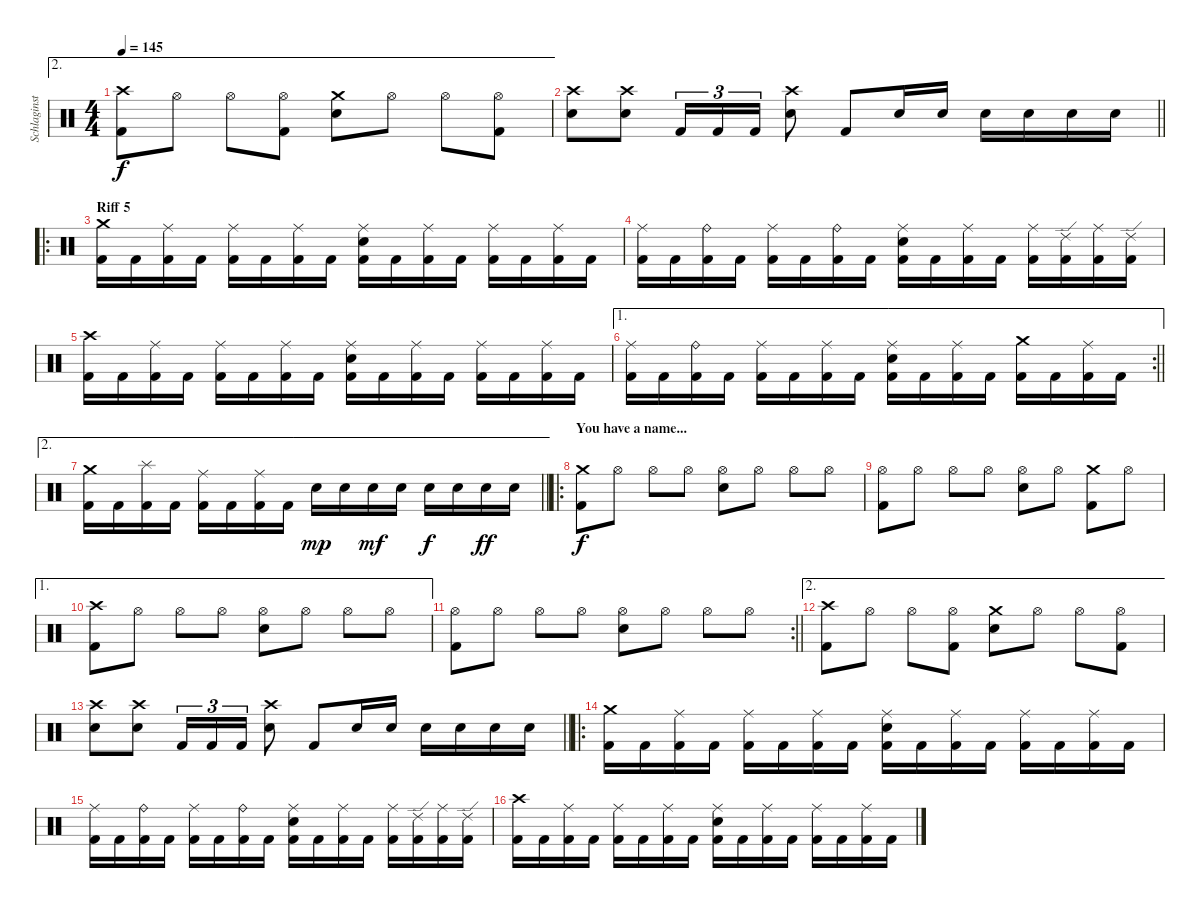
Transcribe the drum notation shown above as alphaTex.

\track ("Schlaginstrumente - Auswahl" "Schlaginst") {instrument percussion}
\staff {score}
\articulation defaults
\ae 2
\ts (4 4)
\tempo 145
\clef neutral
\ks c
("Crash high (hit)" "Kick (hit) 2").8{dy f} "Hi-Hat (open)".8 "Hi-Hat (open)".8 ("Hi-Hat (open)" "Kick (hit) 2").8 ("Crash medium (hit)" "Electric Snare (hit)").8 "Hi-Hat (open)".8 "Hi-Hat (open)".8 ("Hi-Hat (open)" "Kick (hit) 2").8 |
\barLineRight lightlight
("Crash high (hit)" "Electric Snare (hit)").8 ("Crash high (hit)" "Electric Snare (hit)").8 "Kick (hit) 2".16{tu (3 2)} "Kick (hit) 2".16{tu (3 2)} "Kick (hit) 2".16{tu (3 2)} ("Crash high (hit)" "Electric Snare (hit)").8 "Kick (hit) 2".8 "Electric Snare (hit)".16 "Electric Snare (hit)".16 "Electric Snare (hit)".16 "Electric Snare (hit)".16 "Electric Snare (hit)".16 "Electric Snare (hit)".16 |
\ro
\section ("" "Riff 5")
("Crash medium (hit)" "Kick (hit) 2").16 "Kick (hit) 2".16 ("Ride (middle)" "Kick (hit) 2").16 "Kick (hit) 2".16 ("Ride (middle)" "Kick (hit) 2").16 "Kick (hit) 2".16 ("Ride (middle)" "Kick (hit) 2").16 "Kick (hit) 2".16 ("Ride (middle)" "Electric Snare (hit)" "Kick (hit) 2").16 "Kick (hit) 2".16 ("Ride (middle)" "Kick (hit) 2").16 "Kick (hit) 2".16 ("Ride (middle)" "Kick (hit) 2").16 "Kick (hit) 2".16 ("Ride (middle)" "Kick (hit) 2").16 "Kick (hit) 2".16 |
("Ride (middle)" "Kick (hit) 2").16 "Kick (hit) 2".16 ("Ride (bell)" "Kick (hit) 2").16 "Kick (hit) 2".16 ("Ride (middle)" "Kick (hit) 2").16 "Kick (hit) 2".16 ("Ride (bell)" "Kick (hit) 2").16 "Kick (hit) 2".16 ("Ride (middle)" "Electric Snare (hit)" "Kick (hit) 2").16 "Kick (hit) 2".16 ("Ride (middle)" "Kick (hit) 2").16 "Kick (hit) 2".16 ("Ride (middle)" "Kick (hit) 2").16 ("Ride (edge) 2" "Kick (hit) 2").16 ("Ride (middle)" "Kick (hit) 2").16 ("Ride (edge) 2" "Kick (hit) 2").16 |
("Crash high (hit)" "Kick (hit) 2").16 "Kick (hit) 2".16 ("Ride (middle)" "Kick (hit) 2").16 "Kick (hit) 2".16 ("Ride (middle)" "Kick (hit) 2").16 "Kick (hit) 2".16 ("Ride (middle)" "Kick (hit) 2").16 "Kick (hit) 2".16 ("Ride (middle)" "Electric Snare (hit)" "Kick (hit) 2").16 "Kick (hit) 2".16 ("Ride (middle)" "Kick (hit) 2").16 "Kick (hit) 2".16 ("Ride (middle)" "Kick (hit) 2").16 "Kick (hit) 2".16 ("Ride (middle)" "Kick (hit) 2").16 "Kick (hit) 2".16 |
\ae 1
\rc 2
\barLineRight lightlight
("Ride (middle)" "Kick (hit) 2").16 "Kick (hit) 2".16 ("Ride (bell)" "Kick (hit) 2").16 "Kick (hit) 2".16 ("Ride (middle)" "Kick (hit) 2").16 "Kick (hit) 2".16 ("Ride (middle)" "Kick (hit) 2").16 "Kick (hit) 2".16 ("Ride (middle)" "Electric Snare (hit)" "Kick (hit) 2").16 "Kick (hit) 2".16 ("Ride (middle)" "Kick (hit) 2").16 "Kick (hit) 2".16 ("Crash medium (hit)" "Kick (hit) 2").16 "Kick (hit) 2".16 ("Ride (middle)" "Kick (hit) 2").16 "Kick (hit) 2".16 |
\ae 2
\barLineRight lightlight
("Crash medium (hit)" "Kick (hit) 2").16 "Kick (hit) 2".16 ("Splash (hit)" "Kick (hit) 2").16 "Kick (hit) 2".16 ("Ride (middle)" "Kick (hit) 2").16 "Kick (hit) 2".16 ("Ride (middle)" "Kick (hit) 2").16 "Kick (hit) 2".16 "Electric Snare (hit)".16{dy mp} "Electric Snare (hit)".16 "Electric Snare (hit)".16{dy mf} "Electric Snare (hit)".16 "Electric Snare (hit)".16{dy f} "Electric Snare (hit)".16 "Electric Snare (hit)".16{dy ff} "Electric Snare (hit)".16 |
\ro
\section ("" "You have a name...")
("Crash medium (hit)" "Kick (hit) 2").8{dy f} "Hi-Hat (open)".8 "Hi-Hat (open)".8 "Hi-Hat (open)".8 ("Hi-Hat (open)" "Electric Snare (hit)").8 "Hi-Hat (open)".8 "Hi-Hat (open)".8 "Hi-Hat (open)".8 |
("Hi-Hat (open)" "Kick (hit) 2").8 "Hi-Hat (open)".8 "Hi-Hat (open)".8 "Hi-Hat (open)".8 ("Hi-Hat (open)" "Electric Snare (hit)").8 "Hi-Hat (open)".8 ("Crash medium (hit)" "Kick (hit) 2").8 "Hi-Hat (open)".8 |
\ae 1
("Crash high (hit)" "Kick (hit) 2").8 "Hi-Hat (open)".8 "Hi-Hat (open)".8 "Hi-Hat (open)".8 ("Hi-Hat (open)" "Electric Snare (hit)").8 "Hi-Hat (open)".8 "Hi-Hat (open)".8 "Hi-Hat (open)".8 |
\rc 2
\barLineRight lightlight
("Hi-Hat (open)" "Kick (hit) 2").8 "Hi-Hat (open)".8 "Hi-Hat (open)".8 "Hi-Hat (open)".8 ("Hi-Hat (open)" "Electric Snare (hit)").8 "Hi-Hat (open)".8 "Hi-Hat (open)".8 "Hi-Hat (open)".8 |
\ae 2
("Crash high (hit)" "Kick (hit) 2").8 "Hi-Hat (open)".8 "Hi-Hat (open)".8 ("Hi-Hat (open)" "Kick (hit) 2").8 ("Crash medium (hit)" "Electric Snare (hit)").8 "Hi-Hat (open)".8 "Hi-Hat (open)".8 ("Hi-Hat (open)" "Kick (hit) 2").8 |
\barLineRight lightlight
("Crash high (hit)" "Electric Snare (hit)").8 ("Crash high (hit)" "Electric Snare (hit)").8 "Kick (hit) 2".16{tu (3 2)} "Kick (hit) 2".16{tu (3 2)} "Kick (hit) 2".16{tu (3 2)} ("Crash high (hit)" "Electric Snare (hit)").8 "Kick (hit) 2".8 "Electric Snare (hit)".16 "Electric Snare (hit)".16 "Electric Snare (hit)".16 "Electric Snare (hit)".16 "Electric Snare (hit)".16 "Electric Snare (hit)".16 |
\ro
("Crash medium (hit)" "Kick (hit) 2").16 "Kick (hit) 2".16 ("Ride (middle)" "Kick (hit) 2").16 "Kick (hit) 2".16 ("Ride (middle)" "Kick (hit) 2").16 "Kick (hit) 2".16 ("Ride (middle)" "Kick (hit) 2").16 "Kick (hit) 2".16 ("Ride (middle)" "Electric Snare (hit)" "Kick (hit) 2").16 "Kick (hit) 2".16 ("Ride (middle)" "Kick (hit) 2").16 "Kick (hit) 2".16 ("Ride (middle)" "Kick (hit) 2").16 "Kick (hit) 2".16 ("Ride (middle)" "Kick (hit) 2").16 "Kick (hit) 2".16 |
("Ride (middle)" "Kick (hit) 2").16 "Kick (hit) 2".16 ("Ride (bell)" "Kick (hit) 2").16 "Kick (hit) 2".16 ("Ride (middle)" "Kick (hit) 2").16 "Kick (hit) 2".16 ("Ride (bell)" "Kick (hit) 2").16 "Kick (hit) 2".16 ("Ride (middle)" "Electric Snare (hit)" "Kick (hit) 2").16 "Kick (hit) 2".16 ("Ride (middle)" "Kick (hit) 2").16 "Kick (hit) 2".16 ("Ride (middle)" "Kick (hit) 2").16 ("Ride (edge) 2" "Kick (hit) 2").16 ("Ride (middle)" "Kick (hit) 2").16 ("Ride (edge) 2" "Kick (hit) 2").16 |
("Crash high (hit)" "Kick (hit) 2").16 "Kick (hit) 2".16 ("Ride (middle)" "Kick (hit) 2").16 "Kick (hit) 2".16 ("Ride (middle)" "Kick (hit) 2").16 "Kick (hit) 2".16 ("Ride (middle)" "Kick (hit) 2").16 "Kick (hit) 2".16 ("Ride (middle)" "Electric Snare (hit)" "Kick (hit) 2").16 "Kick (hit) 2".16 ("Ride (middle)" "Kick (hit) 2").16 "Kick (hit) 2".16 ("Ride (middle)" "Kick (hit) 2").16 "Kick (hit) 2".16 ("Ride (middle)" "Kick (hit) 2").16 "Kick (hit) 2".16
